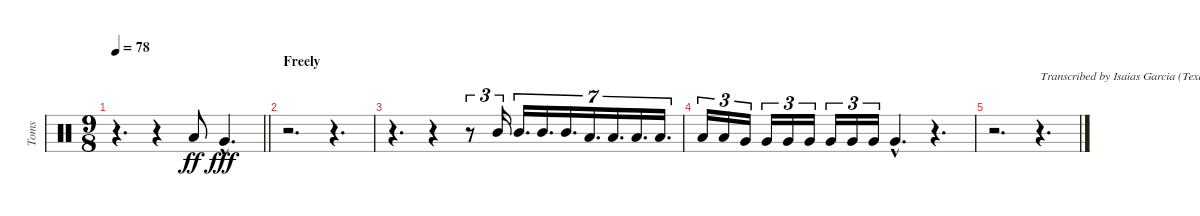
\track ("Toms" "Toms") {instrument percussion}
\staff {score}
\articulation defaults
\ts (9 8)
\tempo 78
\clef neutral
\barLineRight lightlight
\ks c
r.4{d dy ff} r.4{balance 8} "Low Tom (hit)".8{beam Up} "Very Low Tom (hit)"{hac}.4{d dy fff balance 5 beam Up} |
\section ("" "Freely")
r.2{d} r.4{d} |
r.4{d} r.4 r.8{tu (3 2) balance 8 beam Up} "Mid Tom (hit)".16{tu (3 2) beam Up} "Mid Tom (hit)".16{d tu (7 4) beam Up} "Mid Tom (hit)".16{d tu (7 4) beam Up} "Mid Tom (hit)".16{d tu (7 4) beam Up} "Low Tom (hit)".16{d tu (7 4) beam Up} "Low Tom (hit)".16{d tu (7 4) beam Up} "Low Tom (hit)".16{d tu (7 4) beam Up} "Low Tom (hit)".16{d tu (7 4) beam Up} |
"Low Tom (hit)".16{tu (3 2) beam Up} "Low Tom (hit)".16{tu (3 2) beam Up} "Very Low Tom (hit)".16{tu (3 2) balance 4 beam Up beam splitsecondary} "Very Low Tom (hit)".16{tu (3 2) beam Up} "Very Low Tom (hit)".16{tu (3 2) beam Up} "Very Low Tom (hit)".16{tu (3 2) beam Up beam splitsecondary} "Very Low Tom (hit)".16{tu (3 2) beam Up} "Very Low Tom (hit)".16{tu (3 2) beam Up} "Very Low Tom (hit)".16{tu (3 2) beam Up} "Very Low Tom (hit)"{hac}.4{d} r.4{d} |
r.2{d} r.4{d txt "Transcribed by Isaias Garcia (TexasFury)"}
